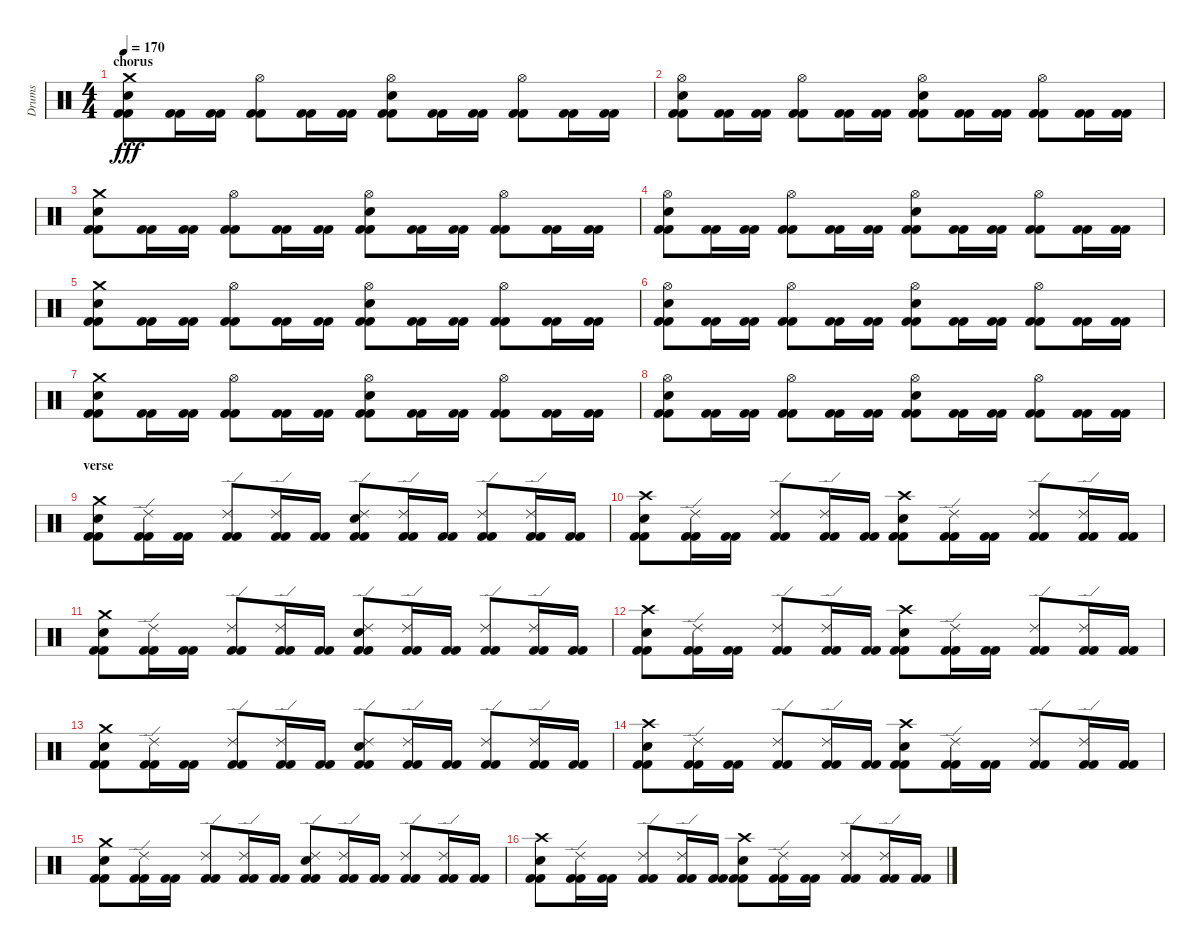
\track ("Drums" "Drums") {instrument percussion}
\staff {score}
\articulation defaults
\ts (4 4)
\section ("" "chorus")
\tempo 170
\clef neutral
\ks c
("Crash medium (hit)" "Electric Snare (hit)" "Kick (hit) 2" "Kick (hit) 2").8{dy fff} ("Kick (hit) 2" "Kick (hit) 2").16 ("Kick (hit) 2" "Kick (hit) 2").16 ("Hi-Hat (open)" "Kick (hit) 2" "Kick (hit) 2").8 ("Kick (hit) 2" "Kick (hit) 2").16 ("Kick (hit) 2" "Kick (hit) 2").16 ("Hi-Hat (open)" "Electric Snare (hit)" "Kick (hit) 2" "Kick (hit) 2").8 ("Kick (hit) 2" "Kick (hit) 2").16 ("Kick (hit) 2" "Kick (hit) 2").16 ("Hi-Hat (open)" "Kick (hit) 2" "Kick (hit) 2").8 ("Kick (hit) 2" "Kick (hit) 2").16 ("Kick (hit) 2" "Kick (hit) 2").16 |
("Hi-Hat (open)" "Electric Snare (hit)" "Kick (hit) 2" "Kick (hit) 2").8 ("Kick (hit) 2" "Kick (hit) 2").16 ("Kick (hit) 2" "Kick (hit) 2").16 ("Hi-Hat (open)" "Kick (hit) 2" "Kick (hit) 2").8 ("Kick (hit) 2" "Kick (hit) 2").16 ("Kick (hit) 2" "Kick (hit) 2").16 ("Hi-Hat (open)" "Electric Snare (hit)" "Kick (hit) 2" "Kick (hit) 2").8 ("Kick (hit) 2" "Kick (hit) 2").16 ("Kick (hit) 2" "Kick (hit) 2").16 ("Hi-Hat (open)" "Kick (hit) 2" "Kick (hit) 2").8 ("Kick (hit) 2" "Kick (hit) 2").16 ("Kick (hit) 2" "Kick (hit) 2").16 |
("Crash medium (hit)" "Electric Snare (hit)" "Kick (hit) 2" "Kick (hit) 2").8 ("Kick (hit) 2" "Kick (hit) 2").16 ("Kick (hit) 2" "Kick (hit) 2").16 ("Hi-Hat (open)" "Kick (hit) 2" "Kick (hit) 2").8 ("Kick (hit) 2" "Kick (hit) 2").16 ("Kick (hit) 2" "Kick (hit) 2").16 ("Hi-Hat (open)" "Electric Snare (hit)" "Kick (hit) 2" "Kick (hit) 2").8 ("Kick (hit) 2" "Kick (hit) 2").16 ("Kick (hit) 2" "Kick (hit) 2").16 ("Hi-Hat (open)" "Kick (hit) 2" "Kick (hit) 2").8 ("Kick (hit) 2" "Kick (hit) 2").16 ("Kick (hit) 2" "Kick (hit) 2").16 |
("Hi-Hat (open)" "Electric Snare (hit)" "Kick (hit) 2" "Kick (hit) 2").8 ("Kick (hit) 2" "Kick (hit) 2").16 ("Kick (hit) 2" "Kick (hit) 2").16 ("Hi-Hat (open)" "Kick (hit) 2" "Kick (hit) 2").8 ("Kick (hit) 2" "Kick (hit) 2").16 ("Kick (hit) 2" "Kick (hit) 2").16 ("Hi-Hat (open)" "Electric Snare (hit)" "Kick (hit) 2" "Kick (hit) 2").8 ("Kick (hit) 2" "Kick (hit) 2").16 ("Kick (hit) 2" "Kick (hit) 2").16 ("Hi-Hat (open)" "Kick (hit) 2" "Kick (hit) 2").8 ("Kick (hit) 2" "Kick (hit) 2").16 ("Kick (hit) 2" "Kick (hit) 2").16 |
("Crash medium (hit)" "Electric Snare (hit)" "Kick (hit) 2" "Kick (hit) 2").8 ("Kick (hit) 2" "Kick (hit) 2").16 ("Kick (hit) 2" "Kick (hit) 2").16 ("Hi-Hat (open)" "Kick (hit) 2" "Kick (hit) 2").8 ("Kick (hit) 2" "Kick (hit) 2").16 ("Kick (hit) 2" "Kick (hit) 2").16 ("Hi-Hat (open)" "Electric Snare (hit)" "Kick (hit) 2" "Kick (hit) 2").8 ("Kick (hit) 2" "Kick (hit) 2").16 ("Kick (hit) 2" "Kick (hit) 2").16 ("Hi-Hat (open)" "Kick (hit) 2" "Kick (hit) 2").8 ("Kick (hit) 2" "Kick (hit) 2").16 ("Kick (hit) 2" "Kick (hit) 2").16 |
("Hi-Hat (open)" "Electric Snare (hit)" "Kick (hit) 2" "Kick (hit) 2").8 ("Kick (hit) 2" "Kick (hit) 2").16 ("Kick (hit) 2" "Kick (hit) 2").16 ("Hi-Hat (open)" "Kick (hit) 2" "Kick (hit) 2").8 ("Kick (hit) 2" "Kick (hit) 2").16 ("Kick (hit) 2" "Kick (hit) 2").16 ("Hi-Hat (open)" "Electric Snare (hit)" "Kick (hit) 2" "Kick (hit) 2").8 ("Kick (hit) 2" "Kick (hit) 2").16 ("Kick (hit) 2" "Kick (hit) 2").16 ("Hi-Hat (open)" "Kick (hit) 2" "Kick (hit) 2").8 ("Kick (hit) 2" "Kick (hit) 2").16 ("Kick (hit) 2" "Kick (hit) 2").16 |
("Crash medium (hit)" "Electric Snare (hit)" "Kick (hit) 2" "Kick (hit) 2").8 ("Kick (hit) 2" "Kick (hit) 2").16 ("Kick (hit) 2" "Kick (hit) 2").16 ("Hi-Hat (open)" "Kick (hit) 2" "Kick (hit) 2").8 ("Kick (hit) 2" "Kick (hit) 2").16 ("Kick (hit) 2" "Kick (hit) 2").16 ("Hi-Hat (open)" "Electric Snare (hit)" "Kick (hit) 2" "Kick (hit) 2").8 ("Kick (hit) 2" "Kick (hit) 2").16 ("Kick (hit) 2" "Kick (hit) 2").16 ("Hi-Hat (open)" "Kick (hit) 2" "Kick (hit) 2").8 ("Kick (hit) 2" "Kick (hit) 2").16 ("Kick (hit) 2" "Kick (hit) 2").16 |
("Hi-Hat (open)" "Electric Snare (hit)" "Kick (hit) 2" "Kick (hit) 2").8 ("Kick (hit) 2" "Kick (hit) 2").16 ("Kick (hit) 2" "Kick (hit) 2").16 ("Hi-Hat (open)" "Kick (hit) 2" "Kick (hit) 2").8 ("Kick (hit) 2" "Kick (hit) 2").16 ("Kick (hit) 2" "Kick (hit) 2").16 ("Hi-Hat (open)" "Electric Snare (hit)" "Kick (hit) 2" "Kick (hit) 2").8 ("Kick (hit) 2" "Kick (hit) 2").16 ("Kick (hit) 2" "Kick (hit) 2").16 ("Hi-Hat (open)" "Kick (hit) 2" "Kick (hit) 2").8 ("Kick (hit) 2" "Kick (hit) 2").16 ("Kick (hit) 2" "Kick (hit) 2").16 |
\section ("" "verse")
("Crash medium (hit)" "Electric Snare (hit)" "Kick (hit) 2" "Kick (hit) 2").8 ("Ride (edge) 2" "Kick (hit) 2" "Kick (hit) 2").16 ("Kick (hit) 2" "Kick (hit) 2").16 ("Ride (edge) 2" "Kick (hit) 2" "Kick (hit) 2").8 ("Ride (edge) 2" "Kick (hit) 2" "Kick (hit) 2").16 ("Kick (hit) 2" "Kick (hit) 2").16 ("Ride (edge) 2" "Electric Snare (hit)" "Kick (hit) 2" "Kick (hit) 2").8 ("Ride (edge) 2" "Kick (hit) 2" "Kick (hit) 2").16 ("Kick (hit) 2" "Kick (hit) 2").16 ("Ride (edge) 2" "Kick (hit) 2" "Kick (hit) 2").8 ("Ride (edge) 2" "Kick (hit) 2" "Kick (hit) 2").16 ("Kick (hit) 2" "Kick (hit) 2").16 |
("Crash high (hit)" "Electric Snare (hit)" "Kick (hit) 2" "Kick (hit) 2").8 ("Ride (edge) 2" "Kick (hit) 2" "Kick (hit) 2").16 ("Kick (hit) 2" "Kick (hit) 2").16 ("Ride (edge) 2" "Kick (hit) 2" "Kick (hit) 2").8 ("Ride (edge) 2" "Kick (hit) 2" "Kick (hit) 2").16 ("Kick (hit) 2" "Kick (hit) 2").16 ("Crash high (hit)" "Electric Snare (hit)" "Kick (hit) 2" "Kick (hit) 2").8 ("Ride (edge) 2" "Kick (hit) 2" "Kick (hit) 2").16 ("Kick (hit) 2" "Kick (hit) 2").16 ("Ride (edge) 2" "Kick (hit) 2" "Kick (hit) 2").8 ("Ride (edge) 2" "Kick (hit) 2" "Kick (hit) 2").16 ("Kick (hit) 2" "Kick (hit) 2").16 |
("Crash medium (hit)" "Electric Snare (hit)" "Kick (hit) 2" "Kick (hit) 2").8 ("Ride (edge) 2" "Kick (hit) 2" "Kick (hit) 2").16 ("Kick (hit) 2" "Kick (hit) 2").16 ("Ride (edge) 2" "Kick (hit) 2" "Kick (hit) 2").8 ("Ride (edge) 2" "Kick (hit) 2" "Kick (hit) 2").16 ("Kick (hit) 2" "Kick (hit) 2").16 ("Ride (edge) 2" "Electric Snare (hit)" "Kick (hit) 2" "Kick (hit) 2").8 ("Ride (edge) 2" "Kick (hit) 2" "Kick (hit) 2").16 ("Kick (hit) 2" "Kick (hit) 2").16 ("Ride (edge) 2" "Kick (hit) 2" "Kick (hit) 2").8 ("Ride (edge) 2" "Kick (hit) 2" "Kick (hit) 2").16 ("Kick (hit) 2" "Kick (hit) 2").16 |
("Crash high (hit)" "Electric Snare (hit)" "Kick (hit) 2" "Kick (hit) 2").8 ("Ride (edge) 2" "Kick (hit) 2" "Kick (hit) 2").16 ("Kick (hit) 2" "Kick (hit) 2").16 ("Ride (edge) 2" "Kick (hit) 2" "Kick (hit) 2").8 ("Ride (edge) 2" "Kick (hit) 2" "Kick (hit) 2").16 ("Kick (hit) 2" "Kick (hit) 2").16 ("Crash high (hit)" "Electric Snare (hit)" "Kick (hit) 2" "Kick (hit) 2").8 ("Ride (edge) 2" "Kick (hit) 2" "Kick (hit) 2").16 ("Kick (hit) 2" "Kick (hit) 2").16 ("Ride (edge) 2" "Kick (hit) 2" "Kick (hit) 2").8 ("Ride (edge) 2" "Kick (hit) 2" "Kick (hit) 2").16 ("Kick (hit) 2" "Kick (hit) 2").16 |
("Crash medium (hit)" "Electric Snare (hit)" "Kick (hit) 2" "Kick (hit) 2").8 ("Ride (edge) 2" "Kick (hit) 2" "Kick (hit) 2").16 ("Kick (hit) 2" "Kick (hit) 2").16 ("Ride (edge) 2" "Kick (hit) 2" "Kick (hit) 2").8 ("Ride (edge) 2" "Kick (hit) 2" "Kick (hit) 2").16 ("Kick (hit) 2" "Kick (hit) 2").16 ("Ride (edge) 2" "Electric Snare (hit)" "Kick (hit) 2" "Kick (hit) 2").8 ("Ride (edge) 2" "Kick (hit) 2" "Kick (hit) 2").16 ("Kick (hit) 2" "Kick (hit) 2").16 ("Ride (edge) 2" "Kick (hit) 2" "Kick (hit) 2").8 ("Ride (edge) 2" "Kick (hit) 2" "Kick (hit) 2").16 ("Kick (hit) 2" "Kick (hit) 2").16 |
("Crash high (hit)" "Electric Snare (hit)" "Kick (hit) 2" "Kick (hit) 2").8 ("Ride (edge) 2" "Kick (hit) 2" "Kick (hit) 2").16 ("Kick (hit) 2" "Kick (hit) 2").16 ("Ride (edge) 2" "Kick (hit) 2" "Kick (hit) 2").8 ("Ride (edge) 2" "Kick (hit) 2" "Kick (hit) 2").16 ("Kick (hit) 2" "Kick (hit) 2").16 ("Crash high (hit)" "Electric Snare (hit)" "Kick (hit) 2" "Kick (hit) 2").8 ("Ride (edge) 2" "Kick (hit) 2" "Kick (hit) 2").16 ("Kick (hit) 2" "Kick (hit) 2").16 ("Ride (edge) 2" "Kick (hit) 2" "Kick (hit) 2").8 ("Ride (edge) 2" "Kick (hit) 2" "Kick (hit) 2").16 ("Kick (hit) 2" "Kick (hit) 2").16 |
("Crash medium (hit)" "Electric Snare (hit)" "Kick (hit) 2" "Kick (hit) 2").8 ("Ride (edge) 2" "Kick (hit) 2" "Kick (hit) 2").16 ("Kick (hit) 2" "Kick (hit) 2").16 ("Ride (edge) 2" "Kick (hit) 2" "Kick (hit) 2").8 ("Ride (edge) 2" "Kick (hit) 2" "Kick (hit) 2").16 ("Kick (hit) 2" "Kick (hit) 2").16 ("Ride (edge) 2" "Electric Snare (hit)" "Kick (hit) 2" "Kick (hit) 2").8 ("Ride (edge) 2" "Kick (hit) 2" "Kick (hit) 2").16 ("Kick (hit) 2" "Kick (hit) 2").16 ("Ride (edge) 2" "Kick (hit) 2" "Kick (hit) 2").8 ("Ride (edge) 2" "Kick (hit) 2" "Kick (hit) 2").16 ("Kick (hit) 2" "Kick (hit) 2").16 |
("Crash high (hit)" "Electric Snare (hit)" "Kick (hit) 2" "Kick (hit) 2").8 ("Ride (edge) 2" "Kick (hit) 2" "Kick (hit) 2").16 ("Kick (hit) 2" "Kick (hit) 2").16 ("Ride (edge) 2" "Kick (hit) 2" "Kick (hit) 2").8 ("Ride (edge) 2" "Kick (hit) 2" "Kick (hit) 2").16 ("Kick (hit) 2" "Kick (hit) 2").16 ("Crash high (hit)" "Electric Snare (hit)" "Kick (hit) 2" "Kick (hit) 2").8 ("Ride (edge) 2" "Kick (hit) 2" "Kick (hit) 2").16 ("Kick (hit) 2" "Kick (hit) 2").16 ("Ride (edge) 2" "Kick (hit) 2" "Kick (hit) 2").8 ("Ride (edge) 2" "Kick (hit) 2" "Kick (hit) 2").16 ("Kick (hit) 2" "Kick (hit) 2").16
